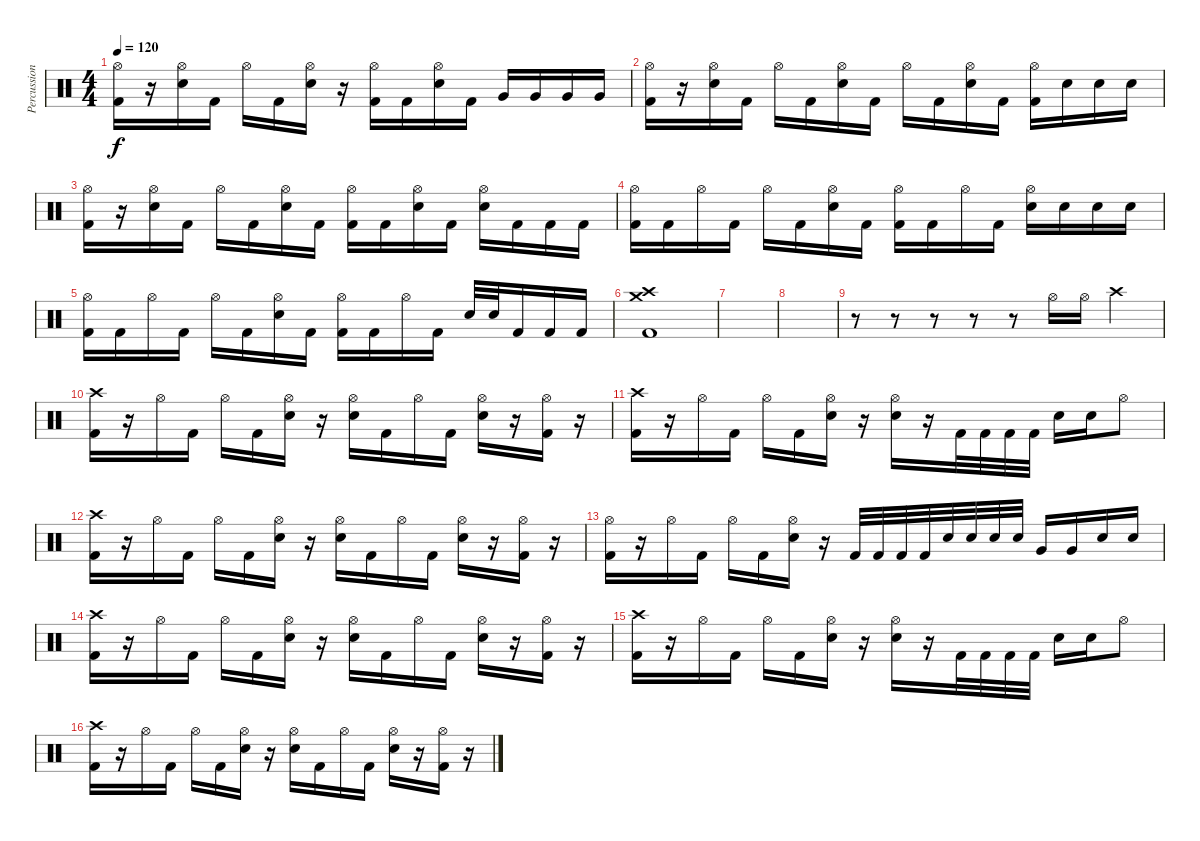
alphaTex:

\track ("Percussion" "Percussion") {instrument percussion}
\staff {score}
\articulation defaults
\ts (4 4)
\tempo 120
\clef neutral
\ks c
("Hi-Hat (open)" "Kick (hit) 2").16{dy f} r.16 ("Hi-Hat (open)" "Electric Snare (hit)").16 "Kick (hit) 2".16 "Hi-Hat (open)".16 "Kick (hit) 2".16 ("Hi-Hat (open)" "Electric Snare (hit)").16 r.16 ("Hi-Hat (open)" "Kick (hit) 2").16 "Kick (hit) 2".16 ("Hi-Hat (open)" "Electric Snare (hit)").16 "Kick (hit) 2".16 "Very Low Tom (hit)".16 "Very Low Tom (hit)".16 "Very Low Tom (hit)".16 "Very Low Tom (hit)".16 |
("Hi-Hat (open)" "Kick (hit) 2").16 r.16 ("Hi-Hat (open)" "Electric Snare (hit)").16 "Kick (hit) 2".16 "Hi-Hat (open)".16 "Kick (hit) 2".16 ("Hi-Hat (open)" "Electric Snare (hit)").16 "Kick (hit) 2".16 "Hi-Hat (open)".16 "Kick (hit) 2".16 ("Hi-Hat (open)" "Electric Snare (hit)").16 "Kick (hit) 2".16 ("Hi-Hat (open)" "Kick (hit) 2").16 "Electric Snare (hit)".16 "Electric Snare (hit)".16 "Electric Snare (hit)".16 |
("Hi-Hat (open)" "Kick (hit) 2").16 r.16 ("Hi-Hat (open)" "Electric Snare (hit)").16 "Kick (hit) 2".16 "Hi-Hat (open)".16 "Kick (hit) 2".16 ("Hi-Hat (open)" "Electric Snare (hit)").16 "Kick (hit) 2".16 ("Hi-Hat (open)" "Kick (hit) 2").16 "Kick (hit) 2".16 ("Hi-Hat (open)" "Electric Snare (hit)").16 "Kick (hit) 2".16 ("Hi-Hat (open)" "Electric Snare (hit)").16 "Kick (hit) 2".16 "Kick (hit) 2".16 "Kick (hit) 2".16 |
("Hi-Hat (open)" "Kick (hit) 2").16 "Kick (hit) 2".16 "Hi-Hat (open)".16 "Kick (hit) 2".16 "Hi-Hat (open)".16 "Kick (hit) 2".16 ("Hi-Hat (open)" "Electric Snare (hit)").16 "Kick (hit) 2".16 ("Hi-Hat (open)" "Kick (hit) 2").16 "Kick (hit) 2".16 "Hi-Hat (open)".16 "Kick (hit) 2".16 ("Hi-Hat (open)" "Electric Snare (hit)").16 "Electric Snare (hit)".16 "Electric Snare (hit)".16 "Electric Snare (hit)".16 |
("Hi-Hat (open)" "Kick (hit) 2").16 "Kick (hit) 2".16 "Hi-Hat (open)".16 "Kick (hit) 2".16 "Hi-Hat (open)".16 "Kick (hit) 2".16 ("Hi-Hat (open)" "Electric Snare (hit)").16 "Kick (hit) 2".16 ("Hi-Hat (open)" "Kick (hit) 2").16 "Kick (hit) 2".16 "Hi-Hat (open)".16 "Kick (hit) 2".16 "Electric Snare (hit)".32 "Electric Snare (hit)".32 "Kick (hit) 2".16 "Kick (hit) 2".16 "Kick (hit) 2".16 |
("Crash high (hit)" "Crash medium (hit)" "Kick (hit) 2").1 |
|
|
r.8 r.8 r.8 r.8 r.8 "Hi-Hat (open)".16 "Hi-Hat (open)".16 "Crash high (hit)".4 |
("Crash high (hit)" "Kick (hit) 2").16 r.16 "Hi-Hat (open)".16 "Kick (hit) 2".16 "Hi-Hat (open)".16 "Kick (hit) 2".16 ("Hi-Hat (open)" "Electric Snare (hit)").16 r.16 ("Hi-Hat (open)" "Electric Snare (hit)").16 "Kick (hit) 2".16 "Hi-Hat (open)".16 "Kick (hit) 2".16 ("Hi-Hat (open)" "Electric Snare (hit)").16 r.16 ("Hi-Hat (open)" "Kick (hit) 2").16 r.16 |
("Crash high (hit)" "Kick (hit) 2").16 r.16 "Hi-Hat (open)".16 "Kick (hit) 2".16 "Hi-Hat (open)".16 "Kick (hit) 2".16 ("Hi-Hat (open)" "Electric Snare (hit)").16 r.16 ("Hi-Hat (open)" "Electric Snare (hit)").16 r.16 "Kick (hit) 2".32 "Kick (hit) 2".32 "Kick (hit) 2".32 "Kick (hit) 2".32 "Electric Snare (hit)".16 "Electric Snare (hit)".16 "Hi-Hat (open)".8 |
("Crash high (hit)" "Kick (hit) 2").16 r.16 "Hi-Hat (open)".16 "Kick (hit) 2".16 "Hi-Hat (open)".16 "Kick (hit) 2".16 ("Hi-Hat (open)" "Electric Snare (hit)").16 r.16 ("Hi-Hat (open)" "Electric Snare (hit)").16 "Kick (hit) 2".16 "Hi-Hat (open)".16 "Kick (hit) 2".16 ("Hi-Hat (open)" "Electric Snare (hit)").16 r.16 ("Hi-Hat (open)" "Kick (hit) 2").16 r.16 |
("Hi-Hat (open)" "Kick (hit) 2").16 r.16 "Hi-Hat (open)".16 "Kick (hit) 2".16 "Hi-Hat (open)".16 "Kick (hit) 2".16 ("Hi-Hat (open)" "Electric Snare (hit)").16 r.16 "Kick (hit) 2".32 "Kick (hit) 2".32 "Kick (hit) 2".32 "Kick (hit) 2".32 "Electric Snare (hit)".32 "Electric Snare (hit)".32 "Electric Snare (hit)".32 "Electric Snare (hit)".32 "Very Low Tom (hit)".16 "Very Low Tom (hit)".16 "Electric Snare (hit)".16 "Electric Snare (hit)".16 |
("Crash high (hit)" "Kick (hit) 2").16 r.16 "Hi-Hat (open)".16 "Kick (hit) 2".16 "Hi-Hat (open)".16 "Kick (hit) 2".16 ("Hi-Hat (open)" "Electric Snare (hit)").16 r.16 ("Hi-Hat (open)" "Electric Snare (hit)").16 "Kick (hit) 2".16 "Hi-Hat (open)".16 "Kick (hit) 2".16 ("Hi-Hat (open)" "Electric Snare (hit)").16 r.16 ("Hi-Hat (open)" "Kick (hit) 2").16 r.16 |
("Crash high (hit)" "Kick (hit) 2").16 r.16 "Hi-Hat (open)".16 "Kick (hit) 2".16 "Hi-Hat (open)".16 "Kick (hit) 2".16 ("Hi-Hat (open)" "Electric Snare (hit)").16 r.16 ("Hi-Hat (open)" "Electric Snare (hit)").16 r.16 "Kick (hit) 2".32 "Kick (hit) 2".32 "Kick (hit) 2".32 "Kick (hit) 2".32 "Electric Snare (hit)".16 "Electric Snare (hit)".16 "Hi-Hat (open)".8 |
("Crash high (hit)" "Kick (hit) 2").16 r.16 "Hi-Hat (open)".16 "Kick (hit) 2".16 "Hi-Hat (open)".16 "Kick (hit) 2".16 ("Hi-Hat (open)" "Electric Snare (hit)").16 r.16 ("Hi-Hat (open)" "Electric Snare (hit)").16 "Kick (hit) 2".16 "Hi-Hat (open)".16 "Kick (hit) 2".16 ("Hi-Hat (open)" "Electric Snare (hit)").16 r.16 ("Hi-Hat (open)" "Kick (hit) 2").16 r.16
